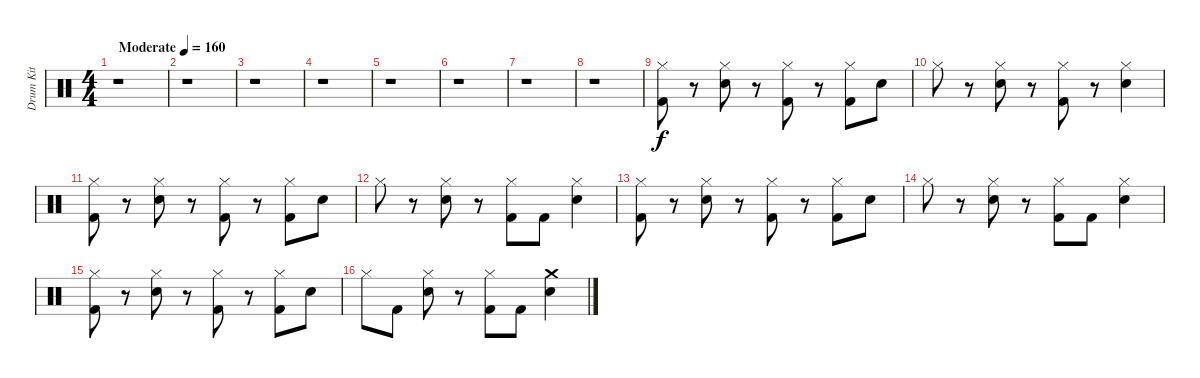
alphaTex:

\track ("Drum Kit" "Drum Kit") {instrument percussion}
\staff {score}
\articulation defaults
\ts (4 4)
\tempo (160 "Moderate")
\clef neutral
\ks c
r.1{dy f} |
r.1 |
r.1 |
r.1 |
r.1 |
r.1 |
r.1 |
r.1 |
("Hi-Hat (closed)" "Kick (hit) 2").8 r.8 ("Hi-Hat (closed)" "Electric Snare (hit)").8 r.8 ("Hi-Hat (closed)" "Kick (hit) 2").8 r.8 ("Hi-Hat (closed)" "Kick (hit) 2").8 "Electric Snare (hit)".8 |
"Hi-Hat (closed)".8 r.8 ("Hi-Hat (closed)" "Electric Snare (hit)").8 r.8 ("Hi-Hat (closed)" "Kick (hit) 2").8 r.8 ("Hi-Hat (closed)" "Electric Snare (hit)").4 |
("Hi-Hat (closed)" "Kick (hit) 2").8 r.8 ("Hi-Hat (closed)" "Electric Snare (hit)").8 r.8 ("Hi-Hat (closed)" "Kick (hit) 2").8 r.8 ("Hi-Hat (closed)" "Kick (hit) 2").8 "Electric Snare (hit)".8 |
"Hi-Hat (closed)".8 r.8 ("Hi-Hat (closed)" "Electric Snare (hit)").8 r.8 ("Hi-Hat (closed)" "Kick (hit) 2").8 "Kick (hit) 2".8 ("Hi-Hat (closed)" "Electric Snare (hit)").4 |
("Hi-Hat (closed)" "Kick (hit) 2").8 r.8 ("Hi-Hat (closed)" "Electric Snare (hit)").8 r.8 ("Hi-Hat (closed)" "Kick (hit) 2").8 r.8 ("Hi-Hat (closed)" "Kick (hit) 2").8 "Electric Snare (hit)".8 |
"Hi-Hat (closed)".8 r.8 ("Hi-Hat (closed)" "Electric Snare (hit)").8 r.8 ("Hi-Hat (closed)" "Kick (hit) 2").8 "Kick (hit) 2".8 ("Hi-Hat (closed)" "Electric Snare (hit)").4 |
("Hi-Hat (closed)" "Kick (hit) 2").8 r.8 ("Hi-Hat (closed)" "Electric Snare (hit)").8 r.8 ("Hi-Hat (closed)" "Kick (hit) 2").8 r.8 ("Hi-Hat (closed)" "Kick (hit) 2").8 "Electric Snare (hit)".8 |
"Hi-Hat (closed)".8 "Kick (hit) 2".8 ("Hi-Hat (closed)" "Electric Snare (hit)").8 r.8 ("Hi-Hat (closed)" "Kick (hit) 2").8 "Kick (hit) 2".8 ("Crash medium (hit)" "Electric Snare (hit)").4
